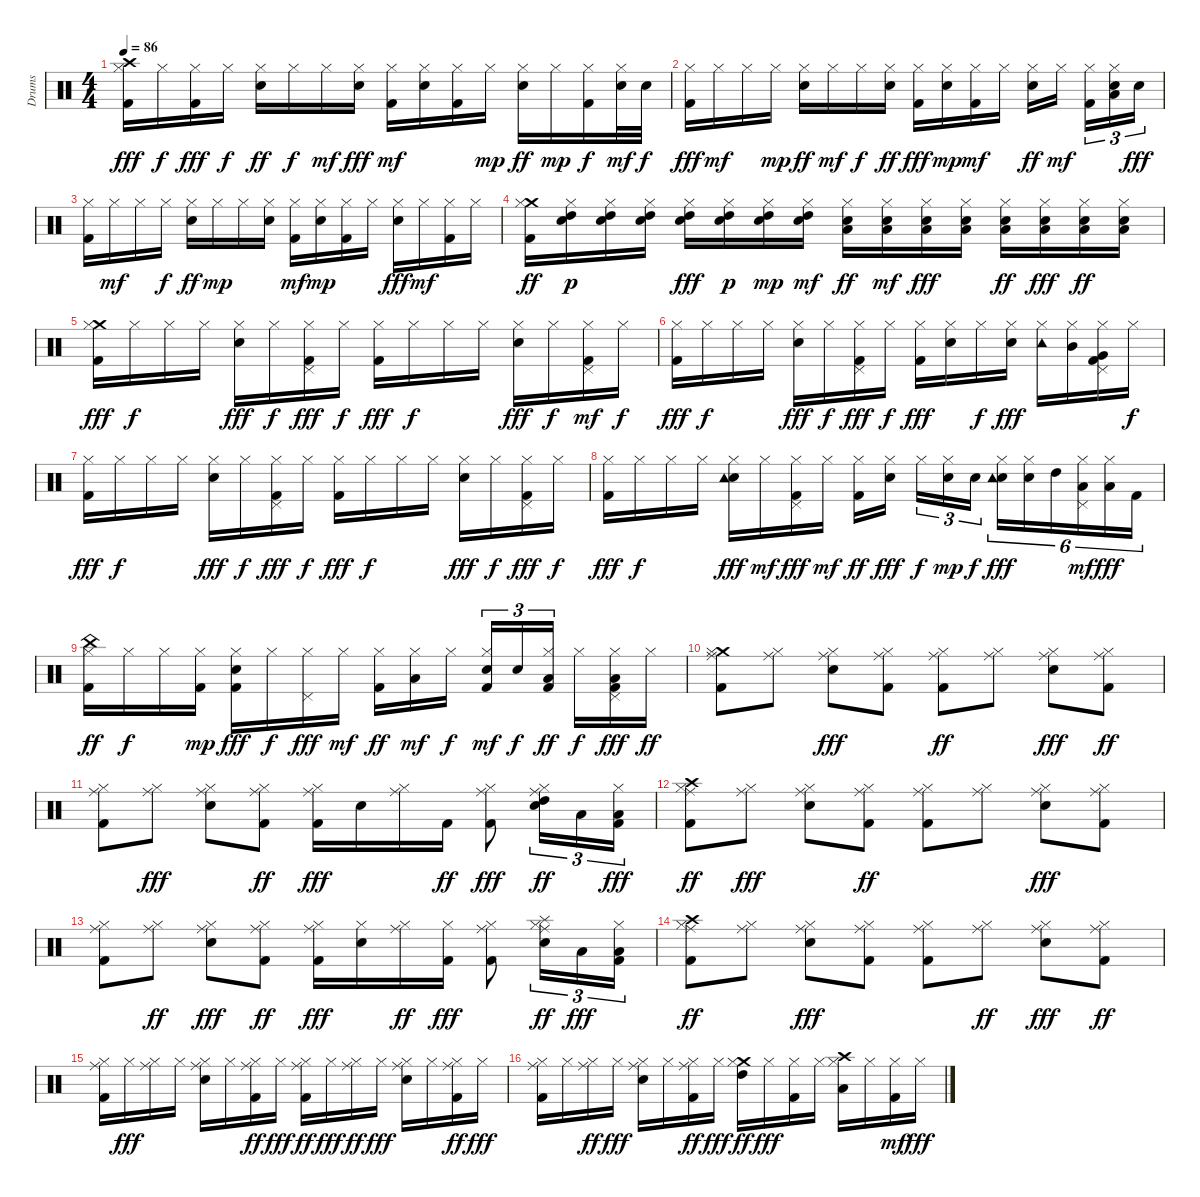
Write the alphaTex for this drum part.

\track ("Drums" "Drums") {instrument percussion}
\staff {score}
\articulation defaults
\ts (4 4)
\tempo 86
\clef neutral
\ks c
("Kick (hit) 2" "Crash high (hit)" "Hi-Hat (closed)").16{dy fff} "Hi-Hat (closed)".16{dy f} ("Kick (hit) 2" "Hi-Hat (closed)").16{dy fff} "Hi-Hat (closed)".16{dy f} ("Snare (hit) 2" "Hi-Hat (closed)").16{dy ff} "Hi-Hat (closed)".16{dy f} "Hi-Hat (closed)".16{dy mf} ("Snare (hit) 2" "Hi-Hat (closed)").16{dy fff} ("Kick (hit) 2" "Hi-Hat (closed)").16{dy mf} ("Snare (hit) 2" "Hi-Hat (closed)").16 ("Kick (hit) 2" "Hi-Hat (closed)").16 "Hi-Hat (closed)".16{dy mp} ("Snare (hit) 2" "Hi-Hat (closed)").16{dy ff} "Hi-Hat (closed)".16{dy mp} ("Kick (hit) 2" "Hi-Hat (closed)").16{dy f} ("Snare (hit) 2" "Hi-Hat (closed)").32{dy mf} "Snare (hit) 2".32{dy f} |
("Kick (hit) 2" "Hi-Hat (closed)").16{dy fff} "Hi-Hat (closed)".16{dy mf} "Hi-Hat (closed)".16 "Hi-Hat (closed)".16{dy mp} ("Snare (hit) 2" "Hi-Hat (closed)").16{dy ff} "Hi-Hat (closed)".16{dy mf} "Hi-Hat (closed)".16{dy f} ("Snare (hit) 2" "Hi-Hat (closed)").16{dy ff} ("Kick (hit) 2" "Hi-Hat (closed)").16{dy fff} ("Snare (hit) 2" "Hi-Hat (closed)").16{dy mp} ("Kick (hit) 2" "Hi-Hat (closed)").16{dy mf} "Hi-Hat (closed)".16 ("Snare (hit) 2" "Hi-Hat (closed)").16{dy ff} "Hi-Hat (closed)".16{dy mf} ("Kick (hit) 2" "Hi-Hat (closed)").16{tu (3 2)} ("Snare (hit) 2" "Low Tom (hit)" "Hi-Hat (closed)").16{tu (3 2)} "Snare (hit) 2".16{tu (3 2) dy fff} |
("Kick (hit) 2" "Hi-Hat (closed)").16 "Hi-Hat (closed)".16{dy mf} "Hi-Hat (closed)".16 "Hi-Hat (closed)".16{dy f} ("Snare (hit) 2" "Hi-Hat (closed)").16{dy ff} "Hi-Hat (closed)".16{dy mp} "Hi-Hat (closed)".16 ("Snare (hit) 2" "Hi-Hat (closed)").16 ("Kick (hit) 2" "Hi-Hat (closed)").16{dy mf} ("Snare (hit) 2" "Hi-Hat (closed)").16{dy mp} ("Kick (hit) 2" "Hi-Hat (closed)").16 "Hi-Hat (closed)".16 ("Snare (hit) 2" "Hi-Hat (closed)").16{dy fff} "Hi-Hat (closed)".16{dy mf} ("Kick (hit) 2" "Hi-Hat (closed)").16 "Hi-Hat (closed)".16 |
("Kick (hit) 2" "Crash medium (hit)" "Hi-Hat (closed)").16{dy ff} ("Snare (hit) 2" "High Tom (hit)" "Hi-Hat (closed)").16{dy p} ("Snare (hit) 2" "High Tom (hit)" "Hi-Hat (closed)").16 ("Snare (hit) 2" "High Tom (hit)" "Hi-Hat (closed)").16 ("Snare (hit) 2" "High Tom (hit)" "Hi-Hat (closed)").16{dy fff} ("Snare (hit) 2" "High Tom (hit)" "Hi-Hat (closed)").16{dy p} ("Snare (hit) 2" "High Tom (hit)" "Hi-Hat (closed)").16{dy mp} ("Snare (hit) 2" "High Tom (hit)" "Hi-Hat (closed)").16{dy mf} ("Snare (hit) 2" "Low Tom (hit)" "Hi-Hat (closed)").16{dy ff} ("Snare (hit) 2" "Low Tom (hit)" "Hi-Hat (closed)").16{dy mf} ("Snare (hit) 2" "Low Tom (hit)" "Hi-Hat (closed)").16{dy fff} ("Snare (hit) 2" "Low Tom (hit)" "Hi-Hat (closed)").16 ("Snare (hit) 2" "Low Floor Tom (hit)" "Hi-Hat (closed)").16{dy ff} ("Snare (hit) 2" "Low Floor Tom (hit)" "Hi-Hat (closed)").16{dy fff} ("Snare (hit) 2" "Low Floor Tom (hit)" "Hi-Hat (closed)").16{dy ff} ("Snare (hit) 2" "Low Floor Tom (hit)" "Hi-Hat (closed)").16 |
("Kick (hit) 2" "Crash medium (hit)" "Hi-Hat (closed)").16{dy fff} "Hi-Hat (closed)".16{dy f} "Hi-Hat (closed)".16 "Hi-Hat (closed)".16 ("Snare (hit) 2" "Hi-Hat (closed)").16{dy fff} "Hi-Hat (closed)".16{dy f} ("Kick (hit) 2" "Pedal Hi-Hat (hit)" "Hi-Hat (closed)").16{dy fff} "Hi-Hat (closed)".16{dy f} ("Kick (hit) 2" "Hi-Hat (closed)").16{dy fff} "Hi-Hat (closed)".16{dy f} "Hi-Hat (closed)".16 "Hi-Hat (closed)".16 ("Snare (hit) 2" "Hi-Hat (closed)").16{dy fff} "Hi-Hat (closed)".16{dy f} ("Kick (hit) 2" "Pedal Hi-Hat (hit)" "Hi-Hat (closed)").16{dy mf} "Hi-Hat (closed)".16{dy f} |
("Kick (hit) 2" "Hi-Hat (closed)").16{dy fff} "Hi-Hat (closed)".16{dy f} "Hi-Hat (closed)".16 "Hi-Hat (closed)".16 ("Snare (hit) 2" "Hi-Hat (closed)").16{dy fff} "Hi-Hat (closed)".16{dy f} ("Kick (hit) 2" "Pedal Hi-Hat (hit)" "Hi-Hat (closed)").16{dy fff} "Hi-Hat (closed)".16{dy f} ("Kick (hit) 2" "Hi-Hat (closed)").16{dy fff} ("Snare (hit) 2" "Hi-Hat (closed)").16 "Hi-Hat (closed)".16{dy f} ("Snare (hit) 2" "Hi-Hat (closed)").16{dy fff} ("Tambourine (hit)" "Hi-Hat (closed)").16 ("Mid Tom (hit)" "Hi-Hat (closed)").16 ("Kick (hit) 2" "Very Low Tom (hit)" "Pedal Hi-Hat (hit)" "Hi-Hat (closed)").16 "Hi-Hat (closed)".16{dy f} |
("Kick (hit) 2" "Hi-Hat (closed)").16{dy fff} "Hi-Hat (closed)".16{dy f} "Hi-Hat (closed)".16 "Hi-Hat (closed)".16 ("Snare (hit) 2" "Hi-Hat (closed)").16{dy fff} "Hi-Hat (closed)".16{dy f} ("Kick (hit) 2" "Pedal Hi-Hat (hit)" "Hi-Hat (closed)").16{dy fff} "Hi-Hat (closed)".16{dy f} ("Kick (hit) 2" "Hi-Hat (closed)").16{dy fff} "Hi-Hat (closed)".16{dy f} "Hi-Hat (closed)".16 "Hi-Hat (closed)".16 ("Snare (hit) 2" "Hi-Hat (closed)").16{dy fff} "Hi-Hat (closed)".16{dy f} ("Kick (hit) 2" "Pedal Hi-Hat (hit)" "Hi-Hat (closed)").16{dy fff} "Hi-Hat (closed)".16{dy f} |
("Kick (hit) 2" "Hi-Hat (closed)").16{dy fff} "Hi-Hat (closed)".16{dy f} "Hi-Hat (closed)".16 "Hi-Hat (closed)".16 ("Snare (hit) 2" "Tambourine (hit)" "Hi-Hat (closed)").16{dy fff} "Hi-Hat (closed)".16{dy mf} ("Kick (hit) 2" "Pedal Hi-Hat (hit)" "Hi-Hat (closed)").16{dy fff} "Hi-Hat (closed)".16{dy mf} ("Kick (hit) 2" "Hi-Hat (closed)").16{dy ff} ("Snare (hit) 2" "Hi-Hat (closed)").16{dy fff} "Hi-Hat (closed)".16{tu (3 2) dy f} ("Snare (hit) 2" "Hi-Hat (closed)").16{tu (3 2) dy mp} "Snare (hit) 2".16{tu (3 2) dy f} ("Snare (hit) 2" "Tambourine (hit)" "Hi-Hat (closed)").16{tu (6 4) dy fff} ("Snare (hit) 2" "Hi-Hat (closed)").16{tu (6 4)} "High Tom (hit)".16{tu (6 4)} ("Pedal Hi-Hat (hit)" "Low Tom (hit)" "Hi-Hat (closed)").16{tu (6 4) dy mf} ("Low Floor Tom (hit)" "Hi-Hat (closed)").16{tu (6 4) dy fff} "Kick (hit) 2".16{tu (6 4)} |
("Kick (hit) 2" "China (hit)" "Hi-Hat (closed)").16{dy ff} "Hi-Hat (closed)".16{dy f} "Hi-Hat (closed)".16 ("Kick (hit) 2" "Hi-Hat (closed)").16{dy mp} ("Kick (hit) 2" "Snare (hit) 2" "Hi-Hat (closed)").16{dy fff} "Hi-Hat (closed)".16{dy f} ("Pedal Hi-Hat (hit)" "Hi-Hat (closed)").16{dy fff} "Hi-Hat (closed)".16{dy mf} ("Kick (hit) 2" "Hi-Hat (closed)").16{dy ff} ("Low Floor Tom (hit)" "Hi-Hat (closed)").16{dy mf} "Hi-Hat (closed)".16{dy f} ("Kick (hit) 2" "Snare (hit) 2" "Hi-Hat (closed)").16{tu (3 2) dy mf} "Snare (hit) 2".16{tu (3 2) dy f} ("Kick (hit) 2" "Low Tom (hit)" "Hi-Hat (closed)").16{tu (3 2) dy ff} "Hi-Hat (closed)".16{dy f} ("Kick (hit) 2" "Low Floor Tom (hit)" "Pedal Hi-Hat (hit)" "Hi-Hat (closed)").16{dy fff} "Hi-Hat (closed)".16{dy ff} |
("Kick (hit) 2" "Ride (middle)" "Crash medium (hit)" "Hi-Hat (closed)").8 ("Ride (middle)" "Hi-Hat (closed)").8 ("Snare (hit) 2" "Ride (middle)" "Hi-Hat (closed)").8{dy fff} ("Kick (hit) 2" "Ride (middle)" "Hi-Hat (closed)").8 ("Kick (hit) 2" "Ride (middle)" "Hi-Hat (closed)").8{dy ff} ("Ride (middle)" "Hi-Hat (closed)").8 ("Snare (hit) 2" "Ride (middle)" "Hi-Hat (closed)").8{dy fff} ("Kick (hit) 2" "Ride (middle)" "Hi-Hat (closed)").8{dy ff} |
("Kick (hit) 2" "Ride (middle)" "Hi-Hat (closed)").8 ("Ride (middle)" "Hi-Hat (closed)").8{dy fff} ("Snare (hit) 2" "Ride (middle)" "Hi-Hat (closed)").8 ("Kick (hit) 2" "Ride (middle)" "Hi-Hat (closed)").8{dy ff} ("Kick (hit) 2" "Ride (middle)" "Hi-Hat (closed)").16{dy fff} "Snare (hit) 2".16 ("Ride (middle)" "Hi-Hat (closed)").16 "Kick (hit) 2".16{dy ff} ("Kick (hit) 2" "Ride (middle)" "Hi-Hat (closed)").8{dy fff} ("Snare (hit) 2" "Ride (middle)" "High Tom (hit)" "Hi-Hat (closed)").16{tu (3 2) dy ff} "Low Tom (hit)".16{tu (3 2)} ("Kick (hit) 2" "Low Floor Tom (hit)" "Hi-Hat (closed)").16{tu (3 2) dy fff} |
("Kick (hit) 2" "Ride (middle)" "Crash high (hit)" "Hi-Hat (closed)").8{dy ff} ("Ride (middle)" "Hi-Hat (closed)").8{dy fff} ("Snare (hit) 2" "Ride (middle)" "Hi-Hat (closed)").8 ("Kick (hit) 2" "Ride (middle)" "Hi-Hat (closed)").8{dy ff} ("Kick (hit) 2" "Ride (middle)" "Hi-Hat (closed)").8 ("Ride (middle)" "Hi-Hat (closed)").8 ("Snare (hit) 2" "Ride (middle)" "Hi-Hat (closed)").8{dy fff} ("Kick (hit) 2" "Ride (middle)" "Hi-Hat (closed)").8 |
("Kick (hit) 2" "Ride (middle)" "Hi-Hat (closed)").8 ("Ride (middle)" "Hi-Hat (closed)").8{dy ff} ("Snare (hit) 2" "Ride (middle)" "Hi-Hat (closed)").8{dy fff} ("Kick (hit) 2" "Ride (middle)" "Hi-Hat (closed)").8{dy ff} ("Kick (hit) 2" "Ride (middle)" "Hi-Hat (closed)").16{dy fff} ("Snare (hit) 2" "Hi-Hat (closed)").16 ("Ride (middle)" "Hi-Hat (closed)").16{dy ff} ("Kick (hit) 2" "Hi-Hat (closed)").16{dy fff} ("Kick (hit) 2" "Ride (middle)" "Hi-Hat (closed)").8 ("Snare (hit) 2" "Ride (middle)" "Splash (hit)" "Hi-Hat (closed)").16{tu (3 2) dy ff} "Low Tom (hit)".16{tu (3 2) dy fff} ("Kick (hit) 2" "Low Floor Tom (hit)" "Hi-Hat (closed)").16{tu (3 2)} |
("Kick (hit) 2" "Ride (middle)" "Crash high (hit)" "Hi-Hat (closed)").8{dy ff} ("Ride (middle)" "Hi-Hat (closed)").8 ("Snare (hit) 2" "Ride (middle)" "Hi-Hat (closed)").8{dy fff} ("Kick (hit) 2" "Ride (middle)" "Hi-Hat (closed)").8 ("Kick (hit) 2" "Ride (middle)" "Hi-Hat (closed)").8 ("Ride (middle)" "Hi-Hat (closed)").8{dy ff} ("Snare (hit) 2" "Ride (middle)" "Hi-Hat (closed)").8{dy fff} ("Kick (hit) 2" "Ride (middle)" "Hi-Hat (closed)").8{dy ff} |
("Kick (hit) 2" "Ride (middle)" "Hi-Hat (closed)").16 "Hi-Hat (closed)".16{dy fff} ("Ride (middle)" "Hi-Hat (closed)").16 "Hi-Hat (closed)".16 ("Snare (hit) 2" "Ride (middle)" "Hi-Hat (closed)").16 "Hi-Hat (closed)".16 ("Kick (hit) 2" "Ride (middle)" "Hi-Hat (closed)").16{dy ff} "Hi-Hat (closed)".16{dy fff} ("Kick (hit) 2" "Ride (middle)" "Hi-Hat (closed)").16{dy ff} "Hi-Hat (closed)".16{dy fff} ("Ride (middle)" "Hi-Hat (closed)").16{dy ff} "Hi-Hat (closed)".16{dy fff} ("Snare (hit) 2" "Ride (middle)" "Hi-Hat (closed)").16 "Hi-Hat (closed)".16 ("Kick (hit) 2" "Ride (middle)" "Hi-Hat (closed)").16{dy ff} "Hi-Hat (closed)".16{dy fff} |
("Kick (hit) 2" "Ride (middle)" "Hi-Hat (closed)").16 "Hi-Hat (closed)".16 ("Ride (middle)" "Hi-Hat (closed)").16{dy ff} "Hi-Hat (closed)".16{dy fff} ("Snare (hit) 2" "Ride (middle)" "Hi-Hat (closed)").16 "Hi-Hat (closed)".16 ("Kick (hit) 2" "Ride (middle)" "Hi-Hat (closed)").16{dy ff} "Hi-Hat (closed)".16{dy fff} ("High Tom (hit)" "Crash medium (hit)" "Hi-Hat (closed)").16{dy ff} "Hi-Hat (closed)".16{dy fff} ("Kick (hit) 2" "Hi-Hat (closed)").16 "Hi-Hat (closed)".16 ("Low Tom (hit)" "Crash high (hit)" "Hi-Hat (closed)").16 "Hi-Hat (closed)".16 ("Kick (hit) 2" "Hi-Hat (closed)").16{dy mf} "Hi-Hat (closed)".16{dy fff}
